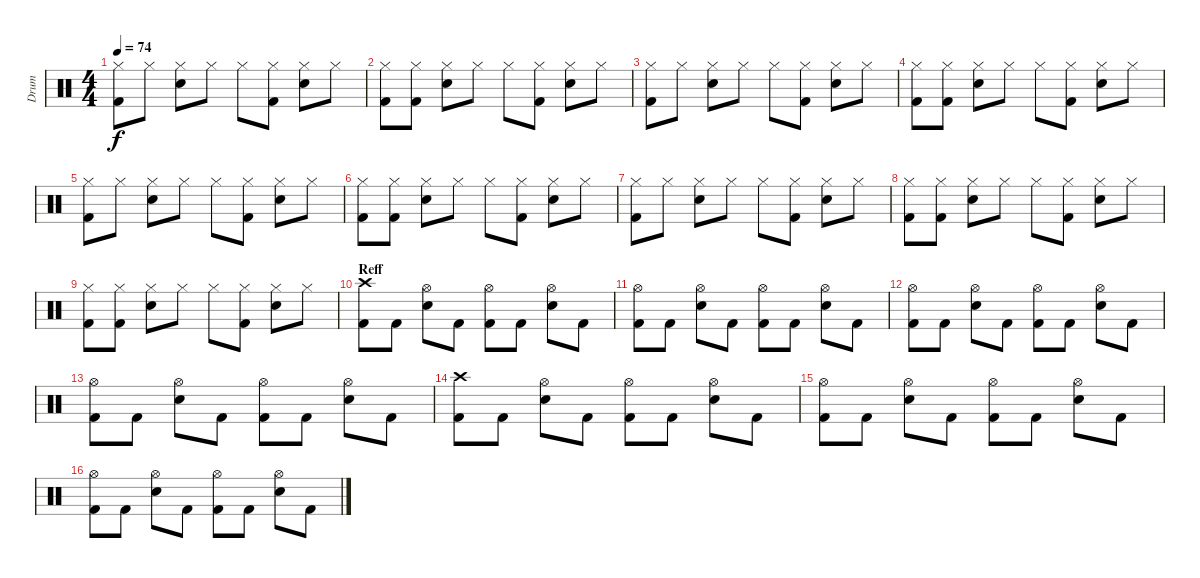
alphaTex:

\track ("Drum" "Drum") {instrument percussion}
\staff {score}
\articulation defaults
\ts (4 4)
\tempo 74
\clef neutral
\ks c
("Kick (hit) 2" "Hi-Hat (closed)").8{dy f} "Hi-Hat (closed)".8 ("Snare (hit) 2" "Hi-Hat (closed)").8 "Hi-Hat (closed)".8 "Hi-Hat (closed)".8 ("Kick (hit) 2" "Hi-Hat (closed)").8 ("Snare (hit) 2" "Hi-Hat (closed)").8 "Hi-Hat (closed)".8 |
("Kick (hit) 2" "Hi-Hat (closed)").8 ("Kick (hit) 2" "Hi-Hat (closed)").8 ("Snare (hit) 2" "Hi-Hat (closed)").8 "Hi-Hat (closed)".8 "Hi-Hat (closed)".8 ("Kick (hit) 2" "Hi-Hat (closed)").8 ("Snare (hit) 2" "Hi-Hat (closed)").8 "Hi-Hat (closed)".8 |
("Kick (hit) 2" "Hi-Hat (closed)").8 "Hi-Hat (closed)".8 ("Snare (hit) 2" "Hi-Hat (closed)").8 "Hi-Hat (closed)".8 "Hi-Hat (closed)".8 ("Kick (hit) 2" "Hi-Hat (closed)").8 ("Snare (hit) 2" "Hi-Hat (closed)").8 "Hi-Hat (closed)".8 |
("Kick (hit) 2" "Hi-Hat (closed)").8 ("Kick (hit) 2" "Hi-Hat (closed)").8 ("Snare (hit) 2" "Hi-Hat (closed)").8 "Hi-Hat (closed)".8 "Hi-Hat (closed)".8 ("Kick (hit) 2" "Hi-Hat (closed)").8 ("Snare (hit) 2" "Hi-Hat (closed)").8 "Hi-Hat (closed)".8 |
("Kick (hit) 2" "Hi-Hat (closed)").8 "Hi-Hat (closed)".8 ("Snare (hit) 2" "Hi-Hat (closed)").8 "Hi-Hat (closed)".8 "Hi-Hat (closed)".8 ("Kick (hit) 2" "Hi-Hat (closed)").8 ("Snare (hit) 2" "Hi-Hat (closed)").8 "Hi-Hat (closed)".8 |
("Kick (hit) 2" "Hi-Hat (closed)").8 ("Kick (hit) 2" "Hi-Hat (closed)").8 ("Snare (hit) 2" "Hi-Hat (closed)").8 "Hi-Hat (closed)".8 "Hi-Hat (closed)".8 ("Kick (hit) 2" "Hi-Hat (closed)").8 ("Snare (hit) 2" "Hi-Hat (closed)").8 "Hi-Hat (closed)".8 |
("Kick (hit) 2" "Hi-Hat (closed)").8 "Hi-Hat (closed)".8 ("Snare (hit) 2" "Hi-Hat (closed)").8 "Hi-Hat (closed)".8 "Hi-Hat (closed)".8 ("Kick (hit) 2" "Hi-Hat (closed)").8 ("Snare (hit) 2" "Hi-Hat (closed)").8 "Hi-Hat (closed)".8 |
("Kick (hit) 2" "Hi-Hat (closed)").8 ("Kick (hit) 2" "Hi-Hat (closed)").8 ("Snare (hit) 2" "Hi-Hat (closed)").8 "Hi-Hat (closed)".8 "Hi-Hat (closed)".8 ("Kick (hit) 2" "Hi-Hat (closed)").8 ("Snare (hit) 2" "Hi-Hat (closed)").8 "Hi-Hat (closed)".8 |
("Kick (hit) 2" "Hi-Hat (closed)").8 ("Kick (hit) 2" "Hi-Hat (closed)").8 ("Snare (hit) 2" "Hi-Hat (closed)").8 "Hi-Hat (closed)".8 "Hi-Hat (closed)".8 ("Kick (hit) 2" "Hi-Hat (closed)").8 ("Snare (hit) 2" "Hi-Hat (closed)").8 "Hi-Hat (closed)".8 |
\section ("" "Reff")
("Kick (hit) 2" "Crash high (hit)").8 "Kick (hit) 2".8 ("Snare (hit) 2" "Hi-Hat (open)").8 "Kick (hit) 2".8 ("Kick (hit) 2" "Hi-Hat (open)").8 "Kick (hit) 2".8 ("Snare (hit) 2" "Hi-Hat (open)").8 "Kick (hit) 2".8 |
("Hi-Hat (open)" "Kick (hit) 2").8 "Kick (hit) 2".8 ("Snare (hit) 2" "Hi-Hat (open)").8 "Kick (hit) 2".8 ("Kick (hit) 2" "Hi-Hat (open)").8 "Kick (hit) 2".8 ("Snare (hit) 2" "Hi-Hat (open)").8 "Kick (hit) 2".8 |
("Hi-Hat (open)" "Kick (hit) 2").8 "Kick (hit) 2".8 ("Snare (hit) 2" "Hi-Hat (open)").8 "Kick (hit) 2".8 ("Kick (hit) 2" "Hi-Hat (open)").8 "Kick (hit) 2".8 ("Snare (hit) 2" "Hi-Hat (open)").8 "Kick (hit) 2".8 |
("Hi-Hat (open)" "Kick (hit) 2").8 "Kick (hit) 2".8 ("Snare (hit) 2" "Hi-Hat (open)").8 "Kick (hit) 2".8 ("Kick (hit) 2" "Hi-Hat (open)").8 "Kick (hit) 2".8 ("Snare (hit) 2" "Hi-Hat (open)").8 "Kick (hit) 2".8 |
("Kick (hit) 2" "Crash high (hit)").8 "Kick (hit) 2".8 ("Snare (hit) 2" "Hi-Hat (open)").8 "Kick (hit) 2".8 ("Kick (hit) 2" "Hi-Hat (open)").8 "Kick (hit) 2".8 ("Snare (hit) 2" "Hi-Hat (open)").8 "Kick (hit) 2".8 |
("Hi-Hat (open)" "Kick (hit) 2").8 "Kick (hit) 2".8 ("Snare (hit) 2" "Hi-Hat (open)").8 "Kick (hit) 2".8 ("Kick (hit) 2" "Hi-Hat (open)").8 "Kick (hit) 2".8 ("Snare (hit) 2" "Hi-Hat (open)").8 "Kick (hit) 2".8 |
("Hi-Hat (open)" "Kick (hit) 2").8 "Kick (hit) 2".8 ("Snare (hit) 2" "Hi-Hat (open)").8 "Kick (hit) 2".8 ("Kick (hit) 2" "Hi-Hat (open)").8 "Kick (hit) 2".8 ("Snare (hit) 2" "Hi-Hat (open)").8 "Kick (hit) 2".8
